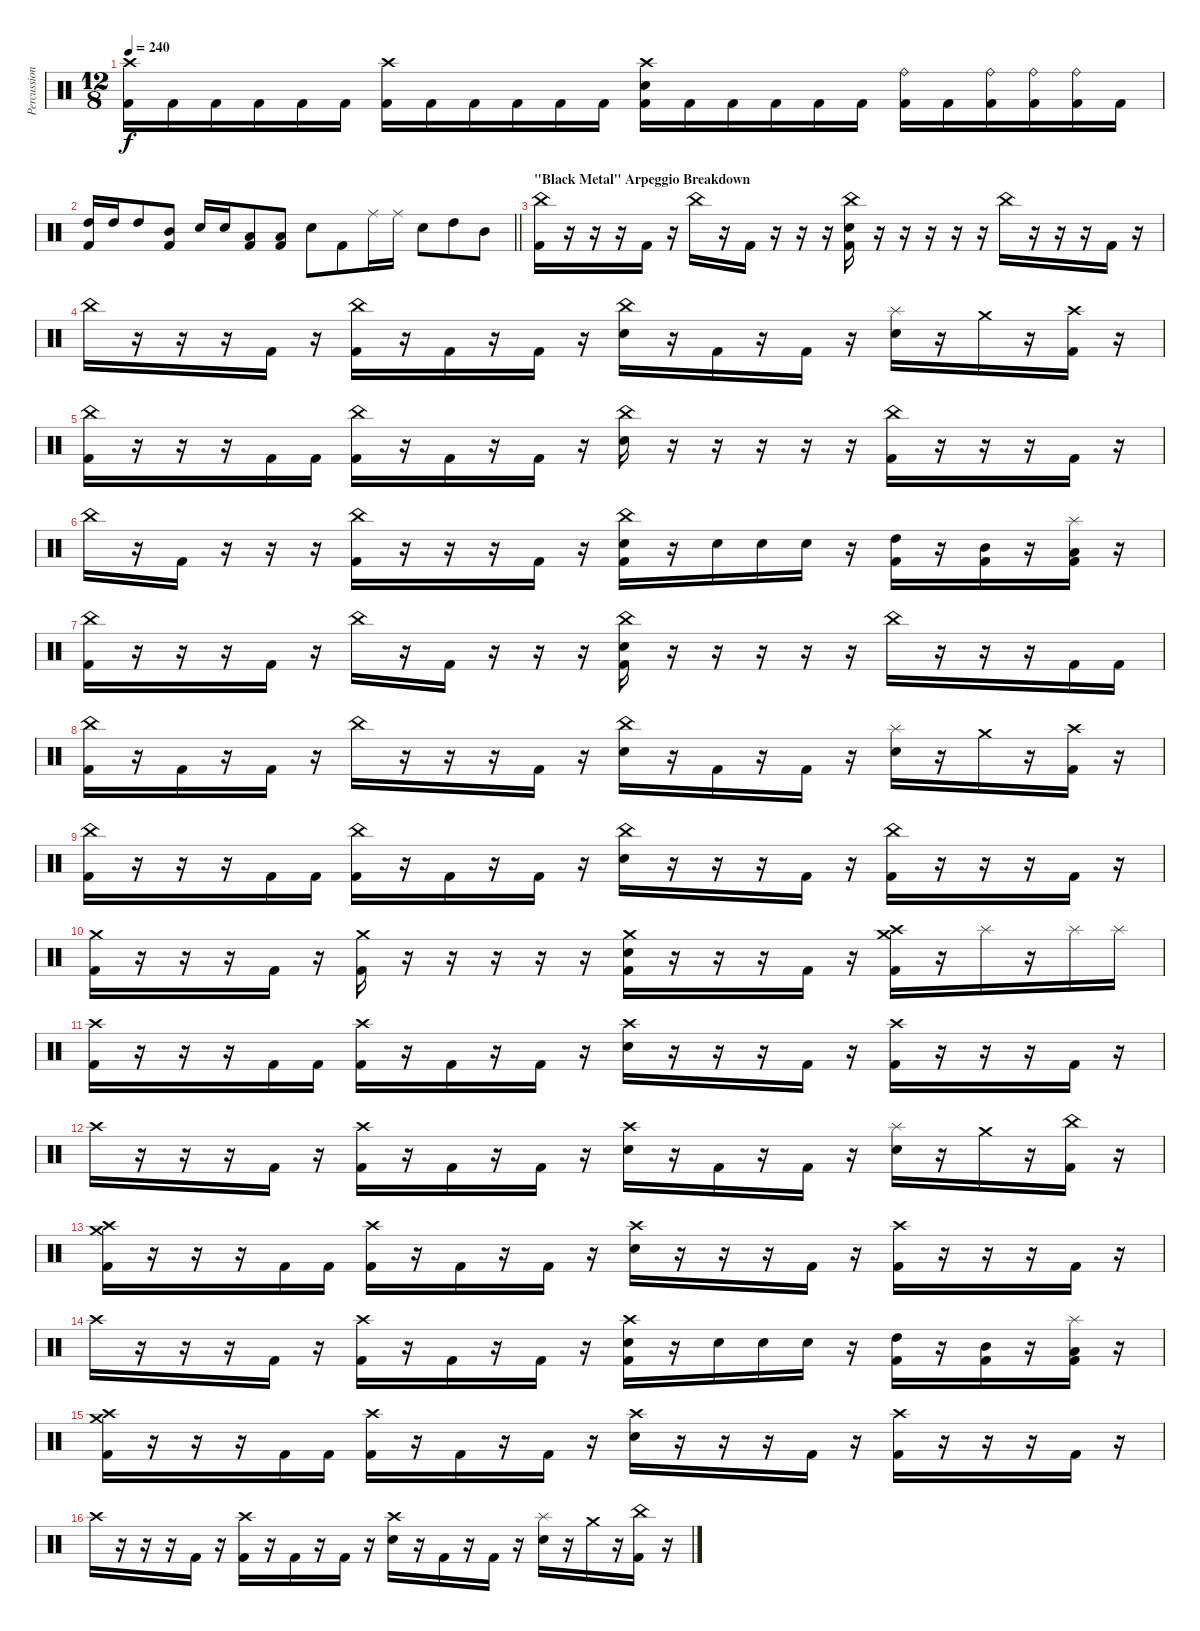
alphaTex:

\track ("Percussion" "Percussion") {instrument percussion}
\staff {score}
\articulation defaults
\ts (12 8)
\tempo 240
\clef neutral
\ks c
("Crash high (hit)" "Kick (hit) 2").16{dy f} "Kick (hit) 2".16 "Kick (hit) 2".16 "Kick (hit) 2".16 "Kick (hit) 2".16 "Kick (hit) 2".16 ("Crash high (hit)" "Kick (hit) 2").16 "Kick (hit) 2".16 "Kick (hit) 2".16 "Kick (hit) 2".16 "Kick (hit) 2".16 "Kick (hit) 2".16 ("Crash high (hit)" "Electric Snare (hit)" "Kick (hit) 2").16 "Kick (hit) 2".16 "Kick (hit) 2".16 "Kick (hit) 2".16 "Kick (hit) 2".16 "Kick (hit) 2".16 ("Ride (bell)" "Kick (hit) 2").16 "Kick (hit) 2".16 ("Ride (bell)" "Kick (hit) 2").16 ("Ride (bell)" "Kick (hit) 2").16 ("Ride (bell)" "Kick (hit) 2").16 "Kick (hit) 2".16 |
\barLineRight lightlight
("High Tom (hit)" "Kick (hit) 2").16 "High Tom (hit)".16 "High Tom (hit)".8 ("Mid Tom (hit)" "Kick (hit) 2").8 "Electric Snare (hit)".16 "Electric Snare (hit)".16 ("Low Tom (hit)" "Kick (hit) 2").8 ("Low Tom (hit)" "Kick (hit) 2").8 "Electric Snare (hit)".8 "Kick (hit) 2".8 "Ride (middle)".16 "Ride (middle)".16 "Electric Snare (hit)".8 "High Tom (hit)".8 "Mid Tom (hit)".8 |
\section ("" "\"Black Metal\" Arpeggio Breakdown")
("China (hit)" "Kick (hit) 2").16 r.16 r.16 r.16 "Kick (hit) 2".16 r.16 "China (hit)".16 r.16 "Kick (hit) 2".16 r.16 r.16 r.16 ("China (hit)" "Electric Snare (hit)" "Kick (hit) 2").16 r.16 r.16 r.16 r.16 r.16 "China (hit)".16 r.16 r.16 r.16 "Kick (hit) 2".16 r.16 |
"China (hit)".16 r.16 r.16 r.16 "Kick (hit) 2".16 r.16 ("China (hit)" "Kick (hit) 2").16 r.16 "Kick (hit) 2".16 r.16 "Kick (hit) 2".16 r.16 ("China (hit)" "Electric Snare (hit)").16 r.16 "Kick (hit) 2".16 r.16 "Kick (hit) 2".16 r.16 ("Splash (hit)" "Electric Snare (hit)").16 r.16 "Crash medium (hit)".16 r.16 ("Crash high (hit)" "Kick (hit) 2").16 r.16 |
("China (hit)" "Kick (hit) 2").16 r.16 r.16 r.16 "Kick (hit) 2".16 "Kick (hit) 2".16 ("China (hit)" "Kick (hit) 2").16 r.16 "Kick (hit) 2".16 r.16 "Kick (hit) 2".16 r.16 ("China (hit)" "Electric Snare (hit)").16 r.16 r.16 r.16 r.16 r.16 ("China (hit)" "Kick (hit) 2").16 r.16 r.16 r.16 "Kick (hit) 2".16 r.16 |
"China (hit)".16 r.16 "Kick (hit) 2".16 r.16 r.16 r.16 ("China (hit)" "Kick (hit) 2").16 r.16 r.16 r.16 "Kick (hit) 2".16 r.16 ("China (hit)" "Electric Snare (hit)" "Kick (hit) 2").16 r.16 "Electric Snare (hit)".16 "Electric Snare (hit)".16 "Electric Snare (hit)".16 r.16 ("High Tom (hit)" "Kick (hit) 2").16 r.16 ("Mid Tom (hit)" "Kick (hit) 2").16 r.16 ("Splash (hit)" "Low Tom (hit)" "Kick (hit) 2").16 r.16 |
("China (hit)" "Kick (hit) 2").16 r.16 r.16 r.16 "Kick (hit) 2".16 r.16 "China (hit)".16 r.16 "Kick (hit) 2".16 r.16 r.16 r.16 ("China (hit)" "Electric Snare (hit)" "Kick (hit) 2").16 r.16 r.16 r.16 r.16 r.16 "China (hit)".16 r.16 r.16 r.16 "Kick (hit) 2".16 "Kick (hit) 2".16 |
("China (hit)" "Kick (hit) 2").16 r.16 "Kick (hit) 2".16 r.16 "Kick (hit) 2".16 r.16 "China (hit)".16 r.16 r.16 r.16 "Kick (hit) 2".16 r.16 ("China (hit)" "Electric Snare (hit)").16 r.16 "Kick (hit) 2".16 r.16 "Kick (hit) 2".16 r.16 ("Splash (hit)" "Electric Snare (hit)").16 r.16 "Crash medium (hit)".16 r.16 ("Crash high (hit)" "Kick (hit) 2").16 r.16 |
("China (hit)" "Kick (hit) 2").16 r.16 r.16 r.16 "Kick (hit) 2".16 "Kick (hit) 2".16 ("China (hit)" "Kick (hit) 2").16 r.16 "Kick (hit) 2".16 r.16 "Kick (hit) 2".16 r.16 ("China (hit)" "Electric Snare (hit)").16 r.16 r.16 r.16 "Kick (hit) 2".16 r.16 ("China (hit)" "Kick (hit) 2").16 r.16 r.16 r.16 "Kick (hit) 2".16 r.16 |
("Crash medium (hit)" "Kick (hit) 2").16 r.16 r.16 r.16 "Kick (hit) 2".16 r.16 ("Crash medium (hit)" "Kick (hit) 2").16 r.16 r.16 r.16 r.16 r.16 ("Crash medium (hit)" "Electric Snare (hit)" "Kick (hit) 2").16 r.16 r.16 r.16 "Kick (hit) 2".16 r.16 ("Crash medium (hit)" "Crash high (hit)" "Kick (hit) 2").16 r.16 "Splash (hit)".16 r.16 "Splash (hit)".16 "Splash (hit)".16 |
("Crash high (hit)" "Kick (hit) 2").16 r.16 r.16 r.16 "Kick (hit) 2".16 "Kick (hit) 2".16 ("Crash high (hit)" "Kick (hit) 2").16 r.16 "Kick (hit) 2".16 r.16 "Kick (hit) 2".16 r.16 ("Crash high (hit)" "Electric Snare (hit)").16 r.16 r.16 r.16 "Kick (hit) 2".16 r.16 ("Crash high (hit)" "Kick (hit) 2").16 r.16 r.16 r.16 "Kick (hit) 2".16 r.16 |
"Crash high (hit)".16 r.16 r.16 r.16 "Kick (hit) 2".16 r.16 ("Crash high (hit)" "Kick (hit) 2").16 r.16 "Kick (hit) 2".16 r.16 "Kick (hit) 2".16 r.16 ("Crash high (hit)" "Electric Snare (hit)").16 r.16 "Kick (hit) 2".16 r.16 "Kick (hit) 2".16 r.16 ("Splash (hit)" "Electric Snare (hit)").16 r.16 "Crash medium (hit)".16 r.16 ("China (hit)" "Kick (hit) 2").16 r.16 |
("Crash medium (hit)" "Crash high (hit)" "Kick (hit) 2").16 r.16 r.16 r.16 "Kick (hit) 2".16 "Kick (hit) 2".16 ("Crash high (hit)" "Kick (hit) 2").16 r.16 "Kick (hit) 2".16 r.16 "Kick (hit) 2".16 r.16 ("Crash high (hit)" "Electric Snare (hit)").16 r.16 r.16 r.16 "Kick (hit) 2".16 r.16 ("Crash high (hit)" "Kick (hit) 2").16 r.16 r.16 r.16 "Kick (hit) 2".16 r.16 |
"Crash high (hit)".16 r.16 r.16 r.16 "Kick (hit) 2".16 r.16 ("Crash high (hit)" "Kick (hit) 2").16 r.16 "Kick (hit) 2".16 r.16 "Kick (hit) 2".16 r.16 ("Crash high (hit)" "Electric Snare (hit)" "Kick (hit) 2").16 r.16 "Electric Snare (hit)".16 "Electric Snare (hit)".16 "Electric Snare (hit)".16 r.16 ("High Tom (hit)" "Kick (hit) 2").16 r.16 ("Mid Tom (hit)" "Kick (hit) 2").16 r.16 ("Splash (hit)" "Low Tom (hit)" "Kick (hit) 2").16 r.16 |
("Crash medium (hit)" "Crash high (hit)" "Kick (hit) 2").16 r.16 r.16 r.16 "Kick (hit) 2".16 "Kick (hit) 2".16 ("Crash high (hit)" "Kick (hit) 2").16 r.16 "Kick (hit) 2".16 r.16 "Kick (hit) 2".16 r.16 ("Crash high (hit)" "Electric Snare (hit)").16 r.16 r.16 r.16 "Kick (hit) 2".16 r.16 ("Crash high (hit)" "Kick (hit) 2").16 r.16 r.16 r.16 "Kick (hit) 2".16 r.16 |
"Crash high (hit)".16 r.16 r.16 r.16 "Kick (hit) 2".16 r.16 ("Crash high (hit)" "Kick (hit) 2").16 r.16 "Kick (hit) 2".16 r.16 "Kick (hit) 2".16 r.16 ("Crash high (hit)" "Electric Snare (hit)").16 r.16 "Kick (hit) 2".16 r.16 "Kick (hit) 2".16 r.16 ("Splash (hit)" "Electric Snare (hit)").16 r.16 "Crash medium (hit)".16 r.16 ("China (hit)" "Kick (hit) 2").16 r.16
